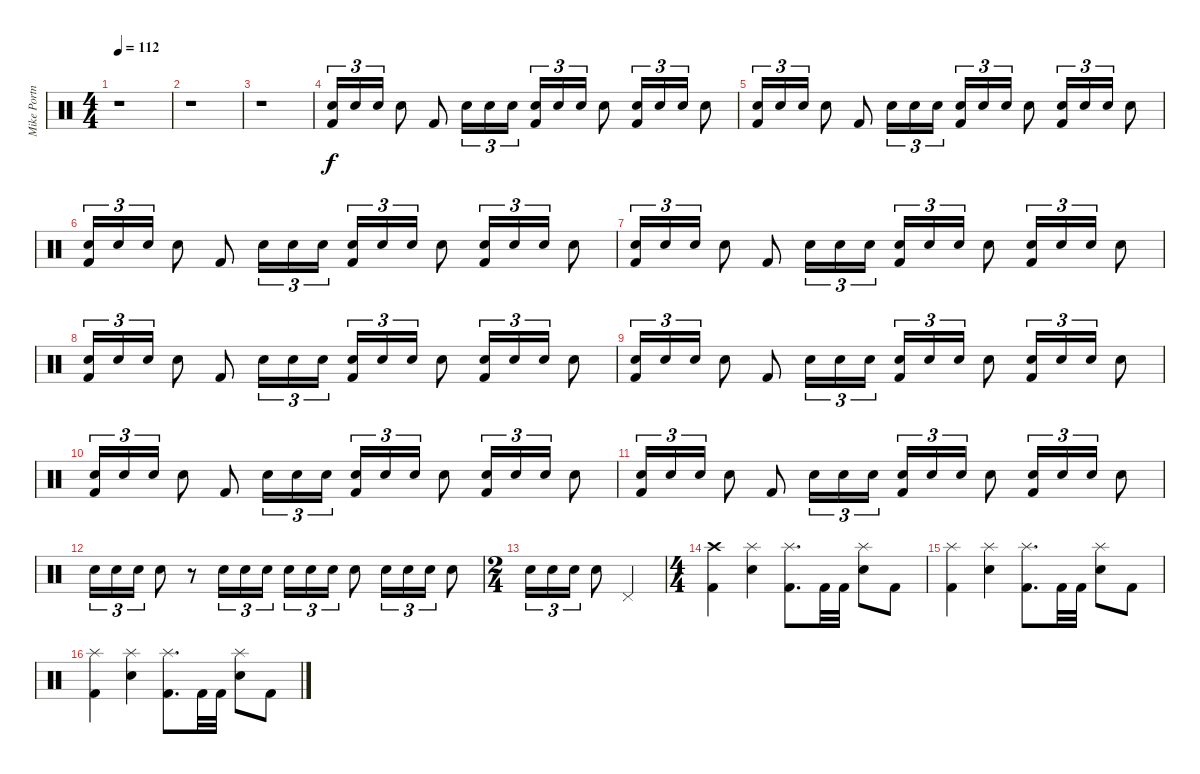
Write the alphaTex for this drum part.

\track ("Mike Portnoy" "Mike Portn") {instrument percussion}
\staff {score}
\articulation defaults
\ts (4 4)
\tempo 112
\clef neutral
\ks c
r.1{dy f} |
r.1 |
r.1 |
("Kick (hit) 2" "Electric Snare (hit)").16{tu (3 2)} "Electric Snare (hit)".16{tu (3 2)} "Electric Snare (hit)".16{tu (3 2)} "Electric Snare (hit)".8 "Kick (hit) 2".8 "Electric Snare (hit)".16{tu (3 2)} "Electric Snare (hit)".16{tu (3 2)} "Electric Snare (hit)".16{tu (3 2)} ("Kick (hit) 2" "Electric Snare (hit)").16{tu (3 2)} "Electric Snare (hit)".16{tu (3 2)} "Electric Snare (hit)".16{tu (3 2)} "Electric Snare (hit)".8 ("Kick (hit) 2" "Electric Snare (hit)").16{tu (3 2)} "Electric Snare (hit)".16{tu (3 2)} "Electric Snare (hit)".16{tu (3 2)} "Electric Snare (hit)".8 |
("Kick (hit) 2" "Electric Snare (hit)").16{tu (3 2)} "Electric Snare (hit)".16{tu (3 2)} "Electric Snare (hit)".16{tu (3 2)} "Electric Snare (hit)".8 "Kick (hit) 2".8 "Electric Snare (hit)".16{tu (3 2)} "Electric Snare (hit)".16{tu (3 2)} "Electric Snare (hit)".16{tu (3 2)} ("Kick (hit) 2" "Electric Snare (hit)").16{tu (3 2)} "Electric Snare (hit)".16{tu (3 2)} "Electric Snare (hit)".16{tu (3 2)} "Electric Snare (hit)".8 ("Kick (hit) 2" "Electric Snare (hit)").16{tu (3 2)} "Electric Snare (hit)".16{tu (3 2)} "Electric Snare (hit)".16{tu (3 2)} "Electric Snare (hit)".8 |
("Kick (hit) 2" "Electric Snare (hit)").16{tu (3 2)} "Electric Snare (hit)".16{tu (3 2)} "Electric Snare (hit)".16{tu (3 2)} "Electric Snare (hit)".8 "Kick (hit) 2".8 "Electric Snare (hit)".16{tu (3 2)} "Electric Snare (hit)".16{tu (3 2)} "Electric Snare (hit)".16{tu (3 2)} ("Kick (hit) 2" "Electric Snare (hit)").16{tu (3 2)} "Electric Snare (hit)".16{tu (3 2)} "Electric Snare (hit)".16{tu (3 2)} "Electric Snare (hit)".8 ("Kick (hit) 2" "Electric Snare (hit)").16{tu (3 2)} "Electric Snare (hit)".16{tu (3 2)} "Electric Snare (hit)".16{tu (3 2)} "Electric Snare (hit)".8 |
("Kick (hit) 2" "Electric Snare (hit)").16{tu (3 2)} "Electric Snare (hit)".16{tu (3 2)} "Electric Snare (hit)".16{tu (3 2)} "Electric Snare (hit)".8 "Kick (hit) 2".8 "Electric Snare (hit)".16{tu (3 2)} "Electric Snare (hit)".16{tu (3 2)} "Electric Snare (hit)".16{tu (3 2)} ("Kick (hit) 2" "Electric Snare (hit)").16{tu (3 2)} "Electric Snare (hit)".16{tu (3 2)} "Electric Snare (hit)".16{tu (3 2)} "Electric Snare (hit)".8 ("Kick (hit) 2" "Electric Snare (hit)").16{tu (3 2)} "Electric Snare (hit)".16{tu (3 2)} "Electric Snare (hit)".16{tu (3 2)} "Electric Snare (hit)".8 |
("Kick (hit) 2" "Electric Snare (hit)").16{tu (3 2)} "Electric Snare (hit)".16{tu (3 2)} "Electric Snare (hit)".16{tu (3 2)} "Electric Snare (hit)".8 "Kick (hit) 2".8 "Electric Snare (hit)".16{tu (3 2)} "Electric Snare (hit)".16{tu (3 2)} "Electric Snare (hit)".16{tu (3 2)} ("Kick (hit) 2" "Electric Snare (hit)").16{tu (3 2)} "Electric Snare (hit)".16{tu (3 2)} "Electric Snare (hit)".16{tu (3 2)} "Electric Snare (hit)".8 ("Kick (hit) 2" "Electric Snare (hit)").16{tu (3 2)} "Electric Snare (hit)".16{tu (3 2)} "Electric Snare (hit)".16{tu (3 2)} "Electric Snare (hit)".8 |
("Kick (hit) 2" "Electric Snare (hit)").16{tu (3 2)} "Electric Snare (hit)".16{tu (3 2)} "Electric Snare (hit)".16{tu (3 2)} "Electric Snare (hit)".8 "Kick (hit) 2".8 "Electric Snare (hit)".16{tu (3 2)} "Electric Snare (hit)".16{tu (3 2)} "Electric Snare (hit)".16{tu (3 2)} ("Kick (hit) 2" "Electric Snare (hit)").16{tu (3 2)} "Electric Snare (hit)".16{tu (3 2)} "Electric Snare (hit)".16{tu (3 2)} "Electric Snare (hit)".8 ("Kick (hit) 2" "Electric Snare (hit)").16{tu (3 2)} "Electric Snare (hit)".16{tu (3 2)} "Electric Snare (hit)".16{tu (3 2)} "Electric Snare (hit)".8 |
("Kick (hit) 2" "Electric Snare (hit)").16{tu (3 2)} "Electric Snare (hit)".16{tu (3 2)} "Electric Snare (hit)".16{tu (3 2)} "Electric Snare (hit)".8 "Kick (hit) 2".8 "Electric Snare (hit)".16{tu (3 2)} "Electric Snare (hit)".16{tu (3 2)} "Electric Snare (hit)".16{tu (3 2)} ("Kick (hit) 2" "Electric Snare (hit)").16{tu (3 2)} "Electric Snare (hit)".16{tu (3 2)} "Electric Snare (hit)".16{tu (3 2)} "Electric Snare (hit)".8 ("Kick (hit) 2" "Electric Snare (hit)").16{tu (3 2)} "Electric Snare (hit)".16{tu (3 2)} "Electric Snare (hit)".16{tu (3 2)} "Electric Snare (hit)".8 |
("Kick (hit) 2" "Electric Snare (hit)").16{tu (3 2)} "Electric Snare (hit)".16{tu (3 2)} "Electric Snare (hit)".16{tu (3 2)} "Electric Snare (hit)".8 "Kick (hit) 2".8 "Electric Snare (hit)".16{tu (3 2)} "Electric Snare (hit)".16{tu (3 2)} "Electric Snare (hit)".16{tu (3 2)} ("Kick (hit) 2" "Electric Snare (hit)").16{tu (3 2)} "Electric Snare (hit)".16{tu (3 2)} "Electric Snare (hit)".16{tu (3 2)} "Electric Snare (hit)".8 ("Kick (hit) 2" "Electric Snare (hit)").16{tu (3 2)} "Electric Snare (hit)".16{tu (3 2)} "Electric Snare (hit)".16{tu (3 2)} "Electric Snare (hit)".8 |
"Electric Snare (hit)".16{tu (3 2)} "Electric Snare (hit)".16{tu (3 2)} "Electric Snare (hit)".16{tu (3 2)} "Electric Snare (hit)".8 r.8 "Electric Snare (hit)".16{tu (3 2)} "Electric Snare (hit)".16{tu (3 2)} "Electric Snare (hit)".16{tu (3 2)} "Electric Snare (hit)".16{tu (3 2)} "Electric Snare (hit)".16{tu (3 2)} "Electric Snare (hit)".16{tu (3 2)} "Electric Snare (hit)".8 "Electric Snare (hit)".16{tu (3 2)} "Electric Snare (hit)".16{tu (3 2)} "Electric Snare (hit)".16{tu (3 2)} "Electric Snare (hit)".8 |
\ts (2 4)
"Electric Snare (hit)".16{tu (3 2)} "Electric Snare (hit)".16{tu (3 2)} "Electric Snare (hit)".16{tu (3 2)} "Electric Snare (hit)".8 "Pedal Hi-Hat (hit)".4 |
\ts (4 4)
("Kick (hit) 2" "Crash high (hit)").4 ("Electric Snare (hit)" "Splash (hit)").4 ("Kick (hit) 2" "Splash (hit)").8{d} "Kick (hit) 2".32 "Kick (hit) 2".32 ("Electric Snare (hit)" "Splash (hit)").8 "Kick (hit) 2".8 |
("Kick (hit) 2" "Splash (hit)").4 ("Electric Snare (hit)" "Splash (hit)").4 ("Kick (hit) 2" "Splash (hit)").8{d} "Kick (hit) 2".32 "Kick (hit) 2".32 ("Electric Snare (hit)" "Splash (hit)").8 "Kick (hit) 2".8 |
("Kick (hit) 2" "Splash (hit)").4 ("Electric Snare (hit)" "Splash (hit)").4 ("Kick (hit) 2" "Splash (hit)").8{d} "Kick (hit) 2".32 "Kick (hit) 2".32 ("Electric Snare (hit)" "Splash (hit)").8 "Kick (hit) 2".8
